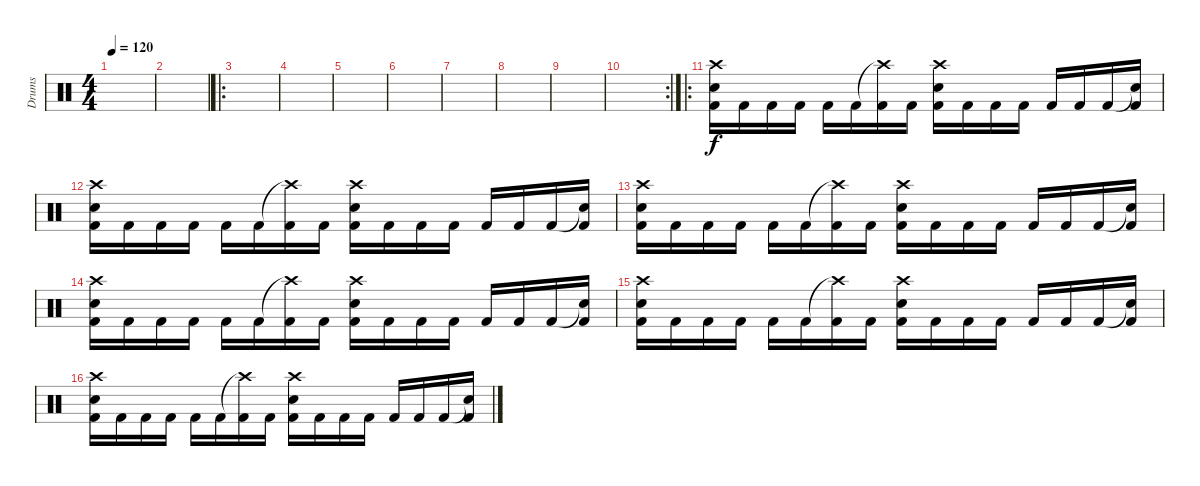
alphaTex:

\track ("Drums" "Drums") {instrument percussion}
\staff {score}
\articulation defaults
\ts (4 4)
\tempo 120
\clef neutral
\ks c
|
|
\ro
|
|
|
|
|
|
|
\rc 2
|
\ro
("Crash high (hit)" "Snare (hit) 2" "Kick (hit) 2").16 "Kick (hit) 2".16 "Kick (hit) 2".16 "Kick (hit) 2".16 "Kick (hit) 2".16 "Kick (hit) 2".16 ("Crash high (hit)"{t} "Kick (hit) 2").16 "Kick (hit) 2".16 ("Crash high (hit)" "Snare (hit) 2" "Kick (hit) 2").16 "Kick (hit) 2".16 "Kick (hit) 2".16 "Kick (hit) 2".16 "Kick (hit) 2".16 "Kick (hit) 2".16 "Kick (hit) 2".16 ("Snare (hit)"{t} "Kick (hit) 2").16 |
("Crash high (hit)" "Snare (hit) 2" "Kick (hit) 2").16 "Kick (hit) 2".16 "Kick (hit) 2".16 "Kick (hit) 2".16 "Kick (hit) 2".16 "Kick (hit) 2".16 ("Crash high (hit)"{t} "Kick (hit) 2").16 "Kick (hit) 2".16 ("Crash high (hit)" "Snare (hit) 2" "Kick (hit) 2").16 "Kick (hit) 2".16 "Kick (hit) 2".16 "Kick (hit) 2".16 "Kick (hit) 2".16 "Kick (hit) 2".16 "Kick (hit) 2".16 ("Snare (hit)"{t} "Kick (hit) 2").16 |
("Crash high (hit)" "Snare (hit) 2" "Kick (hit) 2").16 "Kick (hit) 2".16 "Kick (hit) 2".16 "Kick (hit) 2".16 "Kick (hit) 2".16 "Kick (hit) 2".16 ("Crash high (hit)"{t} "Kick (hit) 2").16 "Kick (hit) 2".16 ("Crash high (hit)" "Snare (hit) 2" "Kick (hit) 2").16 "Kick (hit) 2".16 "Kick (hit) 2".16 "Kick (hit) 2".16 "Kick (hit) 2".16 "Kick (hit) 2".16 "Kick (hit) 2".16 ("Snare (hit)"{t} "Kick (hit) 2").16 |
("Crash high (hit)" "Snare (hit) 2" "Kick (hit) 2").16 "Kick (hit) 2".16 "Kick (hit) 2".16 "Kick (hit) 2".16 "Kick (hit) 2".16 "Kick (hit) 2".16 ("Crash high (hit)"{t} "Kick (hit) 2").16 "Kick (hit) 2".16 ("Crash high (hit)" "Snare (hit) 2" "Kick (hit) 2").16 "Kick (hit) 2".16 "Kick (hit) 2".16 "Kick (hit) 2".16 "Kick (hit) 2".16 "Kick (hit) 2".16 "Kick (hit) 2".16 ("Snare (hit)"{t} "Kick (hit) 2").16 |
("Crash high (hit)" "Snare (hit) 2" "Kick (hit) 2").16 "Kick (hit) 2".16 "Kick (hit) 2".16 "Kick (hit) 2".16 "Kick (hit) 2".16 "Kick (hit) 2".16 ("Crash high (hit)"{t} "Kick (hit) 2").16 "Kick (hit) 2".16 ("Crash high (hit)" "Snare (hit) 2" "Kick (hit) 2").16 "Kick (hit) 2".16 "Kick (hit) 2".16 "Kick (hit) 2".16 "Kick (hit) 2".16 "Kick (hit) 2".16 "Kick (hit) 2".16 ("Snare (hit)"{t} "Kick (hit) 2").16 |
("Crash high (hit)" "Snare (hit) 2" "Kick (hit) 2").16 "Kick (hit) 2".16 "Kick (hit) 2".16 "Kick (hit) 2".16 "Kick (hit) 2".16 "Kick (hit) 2".16 ("Crash high (hit)"{t} "Kick (hit) 2").16 "Kick (hit) 2".16 ("Crash high (hit)" "Snare (hit) 2" "Kick (hit) 2").16 "Kick (hit) 2".16 "Kick (hit) 2".16 "Kick (hit) 2".16 "Kick (hit) 2".16 "Kick (hit) 2".16 "Kick (hit) 2".16 ("Snare (hit)"{t} "Kick (hit) 2").16
